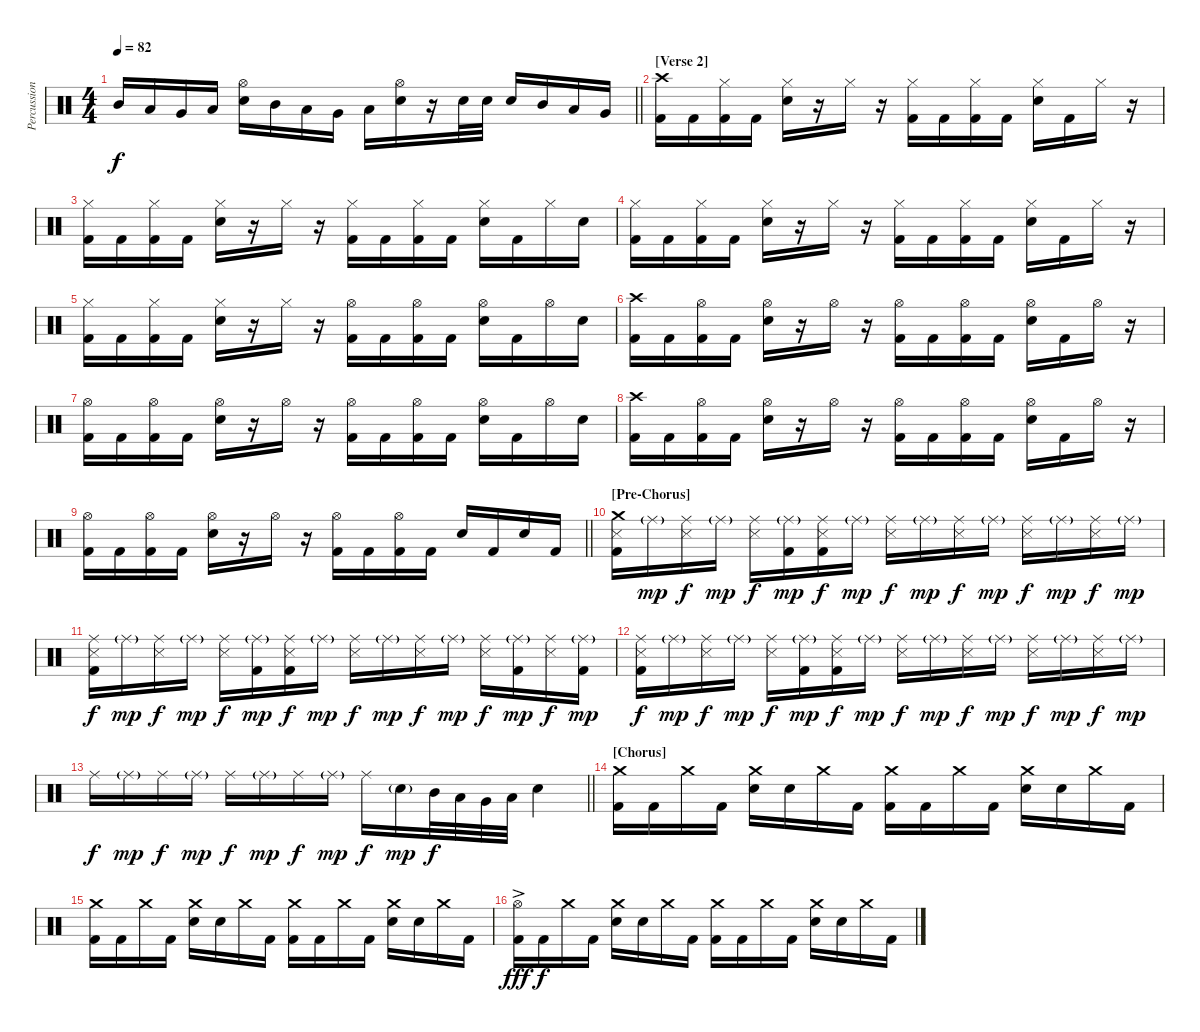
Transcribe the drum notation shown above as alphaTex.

\track ("Percussion" "Percussion") {instrument percussion}
\staff {score}
\articulation defaults
\ts (4 4)
\tempo 82
\clef neutral
\barLineRight lightlight
\ks c "Mid Tom (hit)".16{dy f} "Low Tom (hit)".16 "Very Low Tom (hit)".16 "Low Tom (hit)".16
("Hi-Hat (open)" "Electric Snare (hit)").16 "Mid Tom (hit)".16 "Low Tom (hit)".16 "Very Low Tom (hit)".16 "Low Tom (hit)".16 ("Hi-Hat (open)" "Electric Snare (hit)").16 r.16 "Electric Snare (hit)".32 "Electric Snare (hit)".32 "Electric Snare (hit)".16 "Mid Tom (hit)".16 "Low Tom (hit)".16 "Very Low Tom (hit)".16 |
\section ("" "[Verse 2]")
("Crash high (hit)" "Kick (hit) 2").16 "Kick (hit) 2".16 ("Hi-Hat (closed)" "Kick (hit) 2").16 "Kick (hit) 2".16 ("Hi-Hat (closed)" "Electric Snare (hit)").16 r.16 "Hi-Hat (closed)".16 r.16 ("Hi-Hat (closed)" "Kick (hit) 2").16 "Kick (hit) 2".16 ("Hi-Hat (closed)" "Kick (hit) 2").16 "Kick (hit) 2".16 ("Hi-Hat (closed)" "Electric Snare (hit)").16 "Kick (hit) 2".16 "Hi-Hat (closed)".16 r.16 |
("Hi-Hat (closed)" "Kick (hit) 2").16 "Kick (hit) 2".16 ("Hi-Hat (closed)" "Kick (hit) 2").16 "Kick (hit) 2".16 ("Hi-Hat (closed)" "Electric Snare (hit)").16 r.16 "Hi-Hat (closed)".16 r.16 ("Hi-Hat (closed)" "Kick (hit) 2").16 "Kick (hit) 2".16 ("Hi-Hat (closed)" "Kick (hit) 2").16 "Kick (hit) 2".16 ("Hi-Hat (closed)" "Electric Snare (hit)").16 "Kick (hit) 2".16 "Hi-Hat (closed)".16 "Electric Snare (hit)".16 |
("Hi-Hat (closed)" "Kick (hit) 2").16 "Kick (hit) 2".16 ("Hi-Hat (closed)" "Kick (hit) 2").16 "Kick (hit) 2".16 ("Hi-Hat (closed)" "Electric Snare (hit)").16 r.16 "Hi-Hat (closed)".16 r.16 ("Hi-Hat (closed)" "Kick (hit) 2").16 "Kick (hit) 2".16 ("Hi-Hat (closed)" "Kick (hit) 2").16 "Kick (hit) 2".16 ("Hi-Hat (closed)" "Electric Snare (hit)").16 "Kick (hit) 2".16 "Hi-Hat (closed)".16 r.16 |
("Hi-Hat (closed)" "Kick (hit) 2").16 "Kick (hit) 2".16 ("Hi-Hat (closed)" "Kick (hit) 2").16 "Kick (hit) 2".16 ("Hi-Hat (closed)" "Electric Snare (hit)").16 r.16 "Hi-Hat (closed)".16 r.16 ("Hi-Hat (open)" "Kick (hit) 2").16 "Kick (hit) 2".16 ("Hi-Hat (open)" "Kick (hit) 2").16 "Kick (hit) 2".16 ("Hi-Hat (open)" "Electric Snare (hit)").16 "Kick (hit) 2".16 "Hi-Hat (open)".16 "Electric Snare (hit)".16 |
("Crash high (hit)" "Kick (hit) 2").16 "Kick (hit) 2".16 ("Hi-Hat (open)" "Kick (hit) 2").16 "Kick (hit) 2".16 ("Hi-Hat (open)" "Electric Snare (hit)").16 r.16 "Hi-Hat (open)".16 r.16 ("Hi-Hat (open)" "Kick (hit) 2").16 "Kick (hit) 2".16 ("Hi-Hat (open)" "Kick (hit) 2").16 "Kick (hit) 2".16 ("Hi-Hat (open)" "Electric Snare (hit)").16 "Kick (hit) 2".16 "Hi-Hat (open)".16 r.16 |
("Hi-Hat (open)" "Kick (hit) 2").16 "Kick (hit) 2".16 ("Hi-Hat (open)" "Kick (hit) 2").16 "Kick (hit) 2".16 ("Hi-Hat (open)" "Electric Snare (hit)").16 r.16 "Hi-Hat (open)".16 r.16 ("Hi-Hat (open)" "Kick (hit) 2").16 "Kick (hit) 2".16 ("Hi-Hat (open)" "Kick (hit) 2").16 "Kick (hit) 2".16 ("Hi-Hat (open)" "Electric Snare (hit)").16 "Kick (hit) 2".16 "Hi-Hat (open)".16 "Electric Snare (hit)".16 |
("Crash high (hit)" "Kick (hit) 2").16 "Kick (hit) 2".16 ("Hi-Hat (open)" "Kick (hit) 2").16 "Kick (hit) 2".16 ("Hi-Hat (open)" "Electric Snare (hit)").16 r.16 "Hi-Hat (open)".16 r.16 ("Hi-Hat (open)" "Kick (hit) 2").16 "Kick (hit) 2".16 ("Hi-Hat (open)" "Kick (hit) 2").16 "Kick (hit) 2".16 ("Hi-Hat (open)" "Electric Snare (hit)").16 "Kick (hit) 2".16 "Hi-Hat (open)".16 r.16 |
\barLineRight lightlight
("Hi-Hat (open)" "Kick (hit) 2").16 "Kick (hit) 2".16 ("Hi-Hat (open)" "Kick (hit) 2").16 "Kick (hit) 2".16 ("Hi-Hat (open)" "Electric Snare (hit)").16 r.16 "Hi-Hat (open)".16 r.16 ("Hi-Hat (open)" "Kick (hit) 2").16 "Kick (hit) 2".16 ("Hi-Hat (open)" "Kick (hit) 2").16 "Kick (hit) 2".16 "Electric Snare (hit)".16 "Kick (hit) 2".16 "Electric Snare (hit)".16 "Kick (hit) 2".16 |
\section ("" "[Pre-Chorus]")
("Crash medium (hit)" "Snare (side stick) 3" "Kick (hit) 2").16 "Ride (middle)"{g}.16{dy mp} ("Ride (middle)" "Snare (side stick) 3").16{dy f} "Ride (middle)"{g}.16{dy mp} ("Ride (middle)" "Snare (side stick) 3").16{dy f} ("Ride (middle)"{g} "Kick (hit) 2").16{dy mp} ("Ride (middle)" "Snare (side stick) 3" "Kick (hit) 2").16{dy f} "Ride (middle)"{g}.16{dy mp} ("Ride (middle)" "Snare (side stick) 3").16{dy f} "Ride (middle)"{g}.16{dy mp} ("Ride (middle)" "Snare (side stick) 3").16{dy f} "Ride (middle)"{g}.16{dy mp} ("Ride (middle)" "Snare (side stick) 3").16{dy f} "Ride (middle)"{g}.16{dy mp} ("Ride (middle)" "Snare (side stick) 3").16{dy f} "Ride (middle)"{g}.16{dy mp} |
("Ride (middle)" "Snare (side stick) 3" "Kick (hit) 2").16{dy f} "Ride (middle)"{g}.16{dy mp} ("Ride (middle)" "Snare (side stick) 3").16{dy f} "Ride (middle)"{g}.16{dy mp} ("Ride (middle)" "Snare (side stick) 3").16{dy f} ("Ride (middle)"{g} "Kick (hit) 2").16{dy mp} ("Ride (middle)" "Snare (side stick) 3" "Kick (hit) 2").16{dy f} "Ride (middle)"{g}.16{dy mp} ("Ride (middle)" "Snare (side stick) 3").16{dy f} "Ride (middle)"{g}.16{dy mp} ("Ride (middle)" "Snare (side stick) 3").16{dy f} "Ride (middle)"{g}.16{dy mp} ("Ride (middle)" "Snare (side stick) 3").16{dy f} ("Ride (middle)"{g} "Kick (hit) 2").16{dy mp} ("Ride (middle)" "Snare (side stick) 3").16{dy f} ("Ride (middle)"{g} "Kick (hit) 2").16{dy mp} |
("Ride (middle)" "Snare (side stick) 3" "Kick (hit) 2").16{dy f} "Ride (middle)"{g}.16{dy mp} ("Ride (middle)" "Snare (side stick) 3").16{dy f} "Ride (middle)"{g}.16{dy mp} ("Ride (middle)" "Snare (side stick) 3").16{dy f} ("Ride (middle)"{g} "Kick (hit) 2").16{dy mp} ("Ride (middle)" "Snare (side stick) 3" "Kick (hit) 2").16{dy f} "Ride (middle)"{g}.16{dy mp} ("Ride (middle)" "Snare (side stick) 3").16{dy f} "Ride (middle)"{g}.16{dy mp} ("Ride (middle)" "Snare (side stick) 3").16{dy f} "Ride (middle)"{g}.16{dy mp} ("Ride (middle)" "Snare (side stick) 3").16{dy f} "Ride (middle)"{g}.16{dy mp} ("Ride (middle)" "Snare (side stick) 3").16{dy f} "Ride (middle)"{g}.16{dy mp} |
\barLineRight lightlight "Ride (middle)".16{dy f} "Ride (middle)"{g}.16{dy mp} "Ride (middle)".16{dy f} "Ride (middle)"{g}.16{dy mp} "Ride (middle)".16{dy f} "Ride (middle)"{g}.16{dy mp} "Ride (middle)".16{dy f} "Ride (middle)"{g}.16{dy mp} "Ride (middle)".16{dy f} "Electric Snare (hit)"{g}.16{dy mp} "Mid Tom (hit)".32{dy f} "Low Tom (hit)".32 "Very Low Tom (hit)".32 "Low Tom (hit)".32 "Electric Snare (hit)".4
|
\section ("" "[Chorus]")
("Crash medium (hit)" "Kick (hit) 2").16 "Kick (hit) 2".16 "Crash medium (hit)".16 "Kick (hit) 2".16 ("Crash medium (hit)" "Electric Snare (hit)").16 "Electric Snare (hit)".16 "Crash medium (hit)".16 "Kick (hit) 2".16 ("Crash medium (hit)" "Kick (hit) 2").16 "Kick (hit) 2".16 "Crash medium (hit)".16 "Kick (hit) 2".16 ("Crash medium (hit)" "Electric Snare (hit)").16 "Electric Snare (hit)".16 "Crash medium (hit)".16 "Kick (hit) 2".16 |
("Crash medium (hit)" "Kick (hit) 2").16 "Kick (hit) 2".16 "Crash medium (hit)".16 "Kick (hit) 2".16 ("Crash medium (hit)" "Electric Snare (hit)").16 "Electric Snare (hit)".16 "Crash medium (hit)".16 "Kick (hit) 2".16 ("Crash medium (hit)" "Kick (hit) 2").16 "Kick (hit) 2".16 "Crash medium (hit)".16 "Kick (hit) 2".16 ("Crash medium (hit)" "Electric Snare (hit)").16 "Electric Snare (hit)".16 "Crash medium (hit)".16 "Kick (hit) 2".16 |
("Hi-Hat (open)"{ac} "Kick (hit) 2").16{dy fff} "Kick (hit) 2".16{dy f} "Crash medium (hit)".16 "Kick (hit) 2".16 ("Crash medium (hit)" "Electric Snare (hit)").16 "Electric Snare (hit)".16 "Crash medium (hit)".16 "Kick (hit) 2".16 ("Crash medium (hit)" "Kick (hit) 2").16 "Kick (hit) 2".16 "Crash medium (hit)".16 "Kick (hit) 2".16 ("Crash medium (hit)" "Electric Snare (hit)").16 "Electric Snare (hit)".16 "Crash medium (hit)".16 "Kick (hit) 2".16
